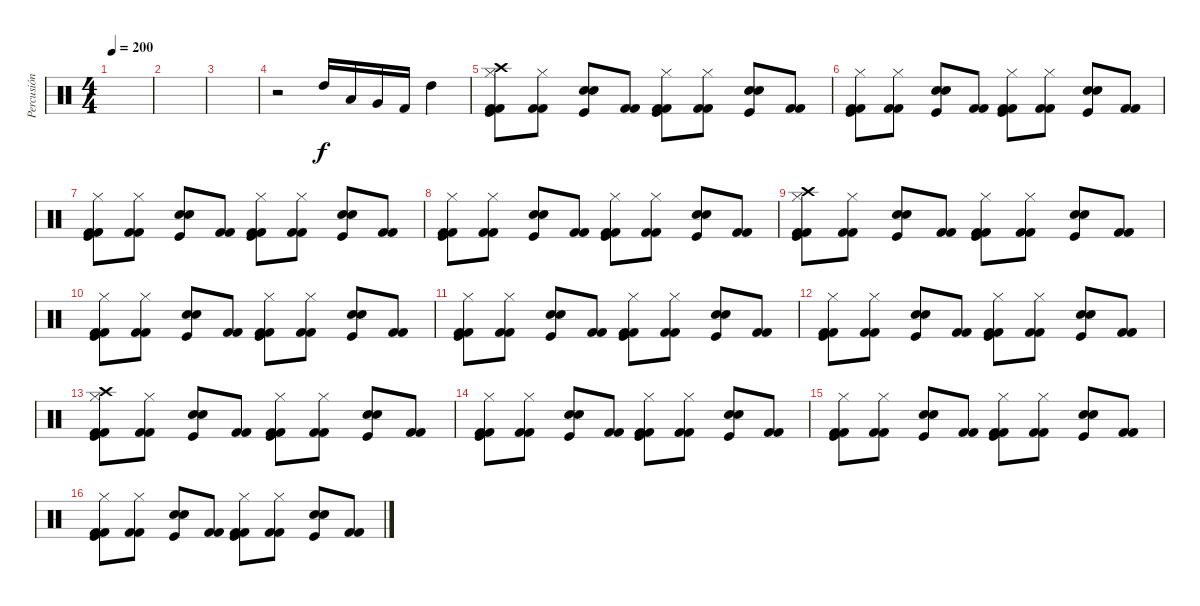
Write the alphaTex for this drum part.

\track ("Percusión" "Percusión") {instrument percussion}
\staff {score}
\articulation defaults
\ts (4 4)
\tempo 200
\clef neutral
\ks c
|
|
|
r.2 "High Tom (hit)".16 "Low Tom (hit)".16 "Very Low Tom (hit)".16 "Kick (hit) 2".16 "High Tom (hit)".4 |
("Kick (hit) 2" "Kick (hit) 2" "Hi-Hat (closed)" "Kick (hit)" "Crash high (hit)").8 ("Kick (hit) 2" "Kick (hit) 2" "Hi-Hat (closed)").8 ("Electric Snare (hit)" "Electric Snare (hit)" "Kick (hit)").8 ("Kick (hit) 2" "Kick (hit) 2").8 ("Kick (hit) 2" "Kick (hit) 2" "Hi-Hat (closed)" "Kick (hit)").8 ("Kick (hit) 2" "Kick (hit) 2" "Hi-Hat (closed)").8 ("Electric Snare (hit)" "Electric Snare (hit)" "Kick (hit)").8 ("Kick (hit) 2" "Kick (hit) 2").8 |
("Kick (hit) 2" "Kick (hit) 2" "Hi-Hat (closed)" "Kick (hit)").8 ("Kick (hit) 2" "Kick (hit) 2" "Hi-Hat (closed)").8 ("Electric Snare (hit)" "Electric Snare (hit)" "Kick (hit)").8 ("Kick (hit) 2" "Kick (hit) 2").8 ("Kick (hit) 2" "Kick (hit) 2" "Hi-Hat (closed)" "Kick (hit)").8 ("Kick (hit) 2" "Kick (hit) 2" "Hi-Hat (closed)").8 ("Electric Snare (hit)" "Electric Snare (hit)" "Kick (hit)").8 ("Kick (hit) 2" "Kick (hit) 2").8 |
("Kick (hit) 2" "Kick (hit) 2" "Hi-Hat (closed)" "Kick (hit)").8 ("Kick (hit) 2" "Kick (hit) 2" "Hi-Hat (closed)").8 ("Electric Snare (hit)" "Electric Snare (hit)" "Kick (hit)").8 ("Kick (hit) 2" "Kick (hit) 2").8 ("Kick (hit) 2" "Kick (hit) 2" "Hi-Hat (closed)" "Kick (hit)").8 ("Kick (hit) 2" "Kick (hit) 2" "Hi-Hat (closed)").8 ("Electric Snare (hit)" "Electric Snare (hit)" "Kick (hit)").8 ("Kick (hit) 2" "Kick (hit) 2").8 |
("Kick (hit) 2" "Kick (hit) 2" "Hi-Hat (closed)" "Kick (hit)").8 ("Kick (hit) 2" "Kick (hit) 2" "Hi-Hat (closed)").8 ("Electric Snare (hit)" "Electric Snare (hit)" "Kick (hit)").8 ("Kick (hit) 2" "Kick (hit) 2").8 ("Kick (hit) 2" "Kick (hit) 2" "Hi-Hat (closed)" "Kick (hit)").8 ("Kick (hit) 2" "Kick (hit) 2" "Hi-Hat (closed)").8 ("Electric Snare (hit)" "Electric Snare (hit)" "Kick (hit)").8 ("Kick (hit) 2" "Kick (hit) 2").8 |
("Kick (hit) 2" "Kick (hit) 2" "Hi-Hat (closed)" "Kick (hit)" "Crash high (hit)").8 ("Kick (hit) 2" "Kick (hit) 2" "Hi-Hat (closed)").8 ("Electric Snare (hit)" "Electric Snare (hit)" "Kick (hit)").8 ("Kick (hit) 2" "Kick (hit) 2").8 ("Kick (hit) 2" "Kick (hit) 2" "Hi-Hat (closed)" "Kick (hit)").8 ("Kick (hit) 2" "Kick (hit) 2" "Hi-Hat (closed)").8 ("Electric Snare (hit)" "Electric Snare (hit)" "Kick (hit)").8 ("Kick (hit) 2" "Kick (hit) 2").8 |
("Kick (hit) 2" "Kick (hit) 2" "Hi-Hat (closed)" "Kick (hit)").8 ("Kick (hit) 2" "Kick (hit) 2" "Hi-Hat (closed)").8 ("Electric Snare (hit)" "Electric Snare (hit)" "Kick (hit)").8 ("Kick (hit) 2" "Kick (hit) 2").8 ("Kick (hit) 2" "Kick (hit) 2" "Hi-Hat (closed)" "Kick (hit)").8 ("Kick (hit) 2" "Kick (hit) 2" "Hi-Hat (closed)").8 ("Electric Snare (hit)" "Electric Snare (hit)" "Kick (hit)").8 ("Kick (hit) 2" "Kick (hit) 2").8 |
("Kick (hit) 2" "Kick (hit) 2" "Hi-Hat (closed)" "Kick (hit)").8 ("Kick (hit) 2" "Kick (hit) 2" "Hi-Hat (closed)").8 ("Electric Snare (hit)" "Electric Snare (hit)" "Kick (hit)").8 ("Kick (hit) 2" "Kick (hit) 2").8 ("Kick (hit) 2" "Kick (hit) 2" "Hi-Hat (closed)" "Kick (hit)").8 ("Kick (hit) 2" "Kick (hit) 2" "Hi-Hat (closed)").8 ("Electric Snare (hit)" "Electric Snare (hit)" "Kick (hit)").8 ("Kick (hit) 2" "Kick (hit) 2").8 |
("Kick (hit) 2" "Kick (hit) 2" "Hi-Hat (closed)" "Kick (hit)").8 ("Kick (hit) 2" "Kick (hit) 2" "Hi-Hat (closed)").8 ("Electric Snare (hit)" "Electric Snare (hit)" "Kick (hit)").8 ("Kick (hit) 2" "Kick (hit) 2").8 ("Kick (hit) 2" "Kick (hit) 2" "Hi-Hat (closed)" "Kick (hit)").8 ("Kick (hit) 2" "Kick (hit) 2" "Hi-Hat (closed)").8 ("Electric Snare (hit)" "Electric Snare (hit)" "Kick (hit)").8 ("Kick (hit) 2" "Kick (hit) 2").8 |
("Kick (hit) 2" "Kick (hit) 2" "Hi-Hat (closed)" "Kick (hit)" "Crash high (hit)").8 ("Kick (hit) 2" "Kick (hit) 2" "Hi-Hat (closed)").8 ("Electric Snare (hit)" "Electric Snare (hit)" "Kick (hit)").8 ("Kick (hit) 2" "Kick (hit) 2").8 ("Kick (hit) 2" "Kick (hit) 2" "Hi-Hat (closed)" "Kick (hit)").8 ("Kick (hit) 2" "Kick (hit) 2" "Hi-Hat (closed)").8 ("Electric Snare (hit)" "Electric Snare (hit)" "Kick (hit)").8 ("Kick (hit) 2" "Kick (hit) 2").8 |
("Kick (hit) 2" "Kick (hit) 2" "Hi-Hat (closed)" "Kick (hit)").8 ("Kick (hit) 2" "Kick (hit) 2" "Hi-Hat (closed)").8 ("Electric Snare (hit)" "Electric Snare (hit)" "Kick (hit)").8 ("Kick (hit) 2" "Kick (hit) 2").8 ("Kick (hit) 2" "Kick (hit) 2" "Hi-Hat (closed)" "Kick (hit)").8 ("Kick (hit) 2" "Kick (hit) 2" "Hi-Hat (closed)").8 ("Electric Snare (hit)" "Electric Snare (hit)" "Kick (hit)").8 ("Kick (hit) 2" "Kick (hit) 2").8 |
("Kick (hit) 2" "Kick (hit) 2" "Hi-Hat (closed)" "Kick (hit)").8 ("Kick (hit) 2" "Kick (hit) 2" "Hi-Hat (closed)").8 ("Electric Snare (hit)" "Electric Snare (hit)" "Kick (hit)").8 ("Kick (hit) 2" "Kick (hit) 2").8 ("Kick (hit) 2" "Kick (hit) 2" "Hi-Hat (closed)" "Kick (hit)").8 ("Kick (hit) 2" "Kick (hit) 2" "Hi-Hat (closed)").8 ("Electric Snare (hit)" "Electric Snare (hit)" "Kick (hit)").8 ("Kick (hit) 2" "Kick (hit) 2").8 |
("Kick (hit) 2" "Kick (hit) 2" "Hi-Hat (closed)" "Kick (hit)").8 ("Kick (hit) 2" "Kick (hit) 2" "Hi-Hat (closed)").8 ("Electric Snare (hit)" "Electric Snare (hit)" "Kick (hit)").8 ("Kick (hit) 2" "Kick (hit) 2").8 ("Kick (hit) 2" "Kick (hit) 2" "Hi-Hat (closed)" "Kick (hit)").8 ("Kick (hit) 2" "Kick (hit) 2" "Hi-Hat (closed)").8 ("Electric Snare (hit)" "Electric Snare (hit)" "Kick (hit)").8 ("Kick (hit) 2" "Kick (hit) 2").8
